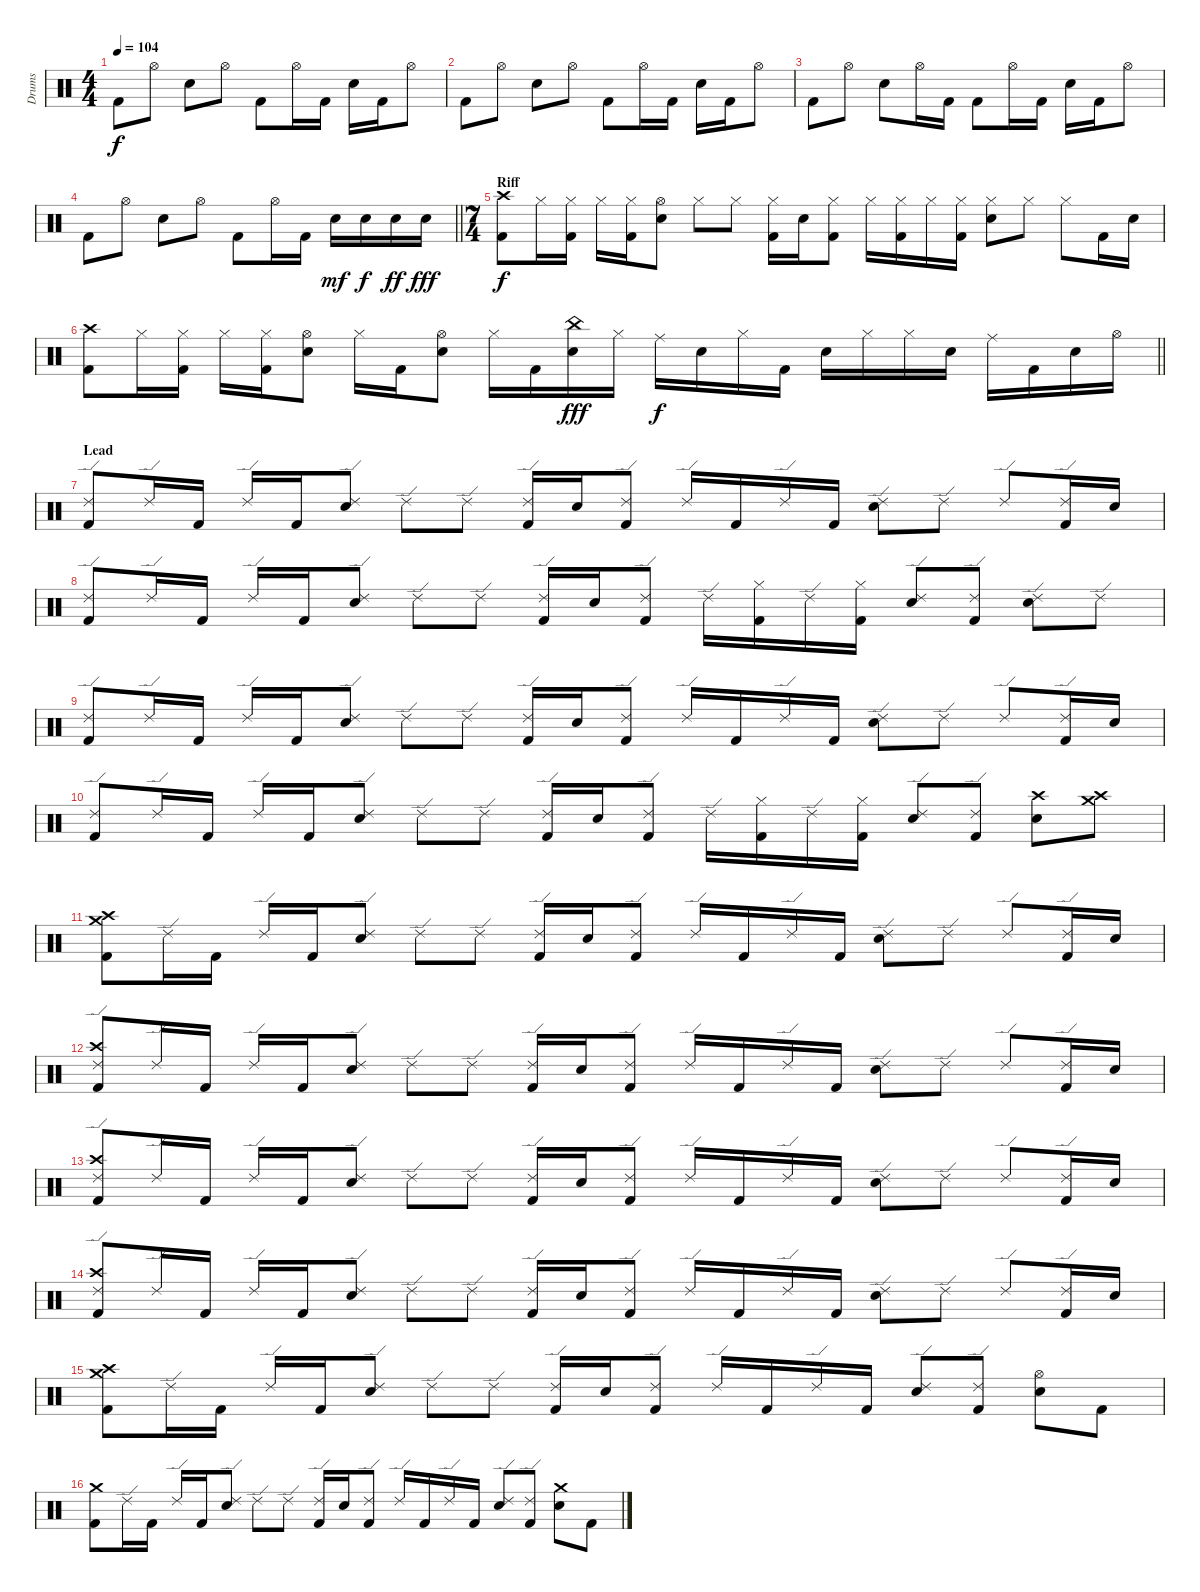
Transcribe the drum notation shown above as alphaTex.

\track ("Drums" "Drums") {instrument percussion}
\staff {score}
\articulation defaults
\ts (4 4)
\tempo 104
\clef neutral
\ks c "Kick (hit) 2".8{dy f} "Hi-Hat (open)".8 "Electric Snare (hit)".8 "Hi-Hat (open)".8 "Kick (hit) 2".8 "Hi-Hat (open)".16 "Kick (hit) 2".16 "Electric Snare (hit)".16 "Kick (hit) 2".16 "Hi-Hat (open)".8
|
"Kick (hit) 2".8 "Hi-Hat (open)".8 "Electric Snare (hit)".8 "Hi-Hat (open)".8 "Kick (hit) 2".8 "Hi-Hat (open)".16 "Kick (hit) 2".16 "Electric Snare (hit)".16 "Kick (hit) 2".16 "Hi-Hat (open)".8 |
"Kick (hit) 2".8 "Hi-Hat (open)".8 "Electric Snare (hit)".8 "Hi-Hat (open)".16 "Kick (hit) 2".16 "Kick (hit) 2".8 "Hi-Hat (open)".16 "Kick (hit) 2".16 "Electric Snare (hit)".16 "Kick (hit) 2".16 "Hi-Hat (open)".8 |
\barLineRight lightlight "Kick (hit) 2".8 "Hi-Hat (open)".8 "Electric Snare (hit)".8 "Hi-Hat (open)".8 "Kick (hit) 2".8 "Hi-Hat (open)".16 "Kick (hit) 2".16 "Electric Snare (hit)".16{dy mf} "Electric Snare (hit)".16{dy f} "Electric Snare (hit)".16{dy ff} "Electric Snare (hit)".16{dy fff}
|
\ts (7 4)
\section ("" "Riff")
("Crash high (hit)" "Kick (hit) 2").8{dy f} "Hi-Hat (closed)".16 ("Hi-Hat (closed)" "Kick (hit) 2").16 "Hi-Hat (closed)".16 ("Hi-Hat (closed)" "Kick (hit) 2").16 ("Hi-Hat (open)" "Electric Snare (hit)").8 "Hi-Hat (closed)".8 "Hi-Hat (closed)".8 ("Hi-Hat (closed)" "Kick (hit) 2").16 "Electric Snare (hit)".16 ("Hi-Hat (closed)" "Kick (hit) 2").8 "Hi-Hat (closed)".16 ("Hi-Hat (closed)" "Kick (hit) 2").16 "Hi-Hat (closed)".16 ("Hi-Hat (closed)" "Kick (hit) 2").16 ("Hi-Hat (closed)" "Electric Snare (hit)").8 "Hi-Hat (closed)".8 "Hi-Hat (closed)".8 "Kick (hit) 2".16 "Electric Snare (hit)".16 |
\barLineRight lightlight
("Crash high (hit)" "Kick (hit) 2").8 "Hi-Hat (closed)".16 ("Hi-Hat (closed)" "Kick (hit) 2").16 "Hi-Hat (closed)".16 ("Hi-Hat (closed)" "Kick (hit) 2").16 ("Hi-Hat (open)" "Electric Snare (hit)").8 "Hi-Hat (closed)".16 "Kick (hit) 2".16 ("Hi-Hat (open)" "Electric Snare (hit)").8 "Hi-Hat (closed)".16 "Kick (hit) 2".16 ("China (hit)" "Electric Snare (hit)").16{dy fff} "Hi-Hat (closed)".16 "Ride (middle)".16{dy f} "Electric Snare (hit)".16 "Hi-Hat (closed)".16 "Kick (hit) 2".16 "Electric Snare (hit)".16 "Hi-Hat (closed)".16 "Hi-Hat (closed)".16 "Electric Snare (hit)".16 "Ride (middle)".16 "Kick (hit) 2".16 "Electric Snare (hit)".16 "Hi-Hat (open)".16 |
\section ("" "Lead")
("Ride (edge) 2" "Kick (hit) 2").8 "Ride (edge) 2".16 "Kick (hit) 2".16 "Ride (edge) 2".16 "Kick (hit) 2".16 ("Ride (edge) 2" "Electric Snare (hit)").8 "Ride (edge) 2".8 "Ride (edge) 2".8 ("Ride (edge) 2" "Kick (hit) 2").16 "Electric Snare (hit)".16 ("Ride (edge) 2" "Kick (hit) 2").8 "Ride (edge) 2".16 "Kick (hit) 2".16 "Ride (edge) 2".16 "Kick (hit) 2".16 ("Ride (edge) 2" "Electric Snare (hit)").8 "Ride (edge) 2".8 "Ride (edge) 2".8 ("Ride (edge) 2" "Kick (hit) 2").16 "Electric Snare (hit)".16 |
("Ride (edge) 2" "Kick (hit) 2").8 "Ride (edge) 2".16 "Kick (hit) 2".16 "Ride (edge) 2".16 "Kick (hit) 2".16 ("Ride (edge) 2" "Electric Snare (hit)").8 "Ride (edge) 2".8 "Ride (edge) 2".8 ("Ride (edge) 2" "Kick (hit) 2").16 "Electric Snare (hit)".16 ("Ride (edge) 2" "Kick (hit) 2").8 "Ride (edge) 2".16 ("Hi-Hat (closed)" "Kick (hit) 2").16 "Ride (edge) 2".16 ("Hi-Hat (closed)" "Kick (hit) 2").16 ("Ride (edge) 2" "Electric Snare (hit)").8 ("Ride (edge) 2" "Kick (hit) 2").8 ("Ride (edge) 2" "Electric Snare (hit)").8 "Ride (edge) 2".8 |
("Ride (edge) 2" "Kick (hit) 2").8 "Ride (edge) 2".16 "Kick (hit) 2".16 "Ride (edge) 2".16 "Kick (hit) 2".16 ("Ride (edge) 2" "Electric Snare (hit)").8 "Ride (edge) 2".8 "Ride (edge) 2".8 ("Ride (edge) 2" "Kick (hit) 2").16 "Electric Snare (hit)".16 ("Ride (edge) 2" "Kick (hit) 2").8 "Ride (edge) 2".16 "Kick (hit) 2".16 "Ride (edge) 2".16 "Kick (hit) 2".16 ("Ride (edge) 2" "Electric Snare (hit)").8 "Ride (edge) 2".8 "Ride (edge) 2".8 ("Ride (edge) 2" "Kick (hit) 2").16 "Electric Snare (hit)".16 |
("Ride (edge) 2" "Kick (hit) 2").8 "Ride (edge) 2".16 "Kick (hit) 2".16 "Ride (edge) 2".16 "Kick (hit) 2".16 ("Ride (edge) 2" "Electric Snare (hit)").8 "Ride (edge) 2".8 "Ride (edge) 2".8 ("Ride (edge) 2" "Kick (hit) 2").16 "Electric Snare (hit)".16 ("Ride (edge) 2" "Kick (hit) 2").8 "Ride (edge) 2".16 ("Hi-Hat (closed)" "Kick (hit) 2").16 "Ride (edge) 2".16 ("Hi-Hat (closed)" "Kick (hit) 2").16 ("Ride (edge) 2" "Electric Snare (hit)").8 ("Ride (edge) 2" "Kick (hit) 2").8 ("Crash high (hit)" "Electric Snare (hit)").8 ("Crash medium (hit)" "Crash high (hit)").8 |
("Crash medium (hit)" "Crash high (hit)" "Kick (hit) 2").8 "Ride (edge) 2".16 "Kick (hit) 2".16 "Ride (edge) 2".16 "Kick (hit) 2".16 ("Ride (edge) 2" "Electric Snare (hit)").8 "Ride (edge) 2".8 "Ride (edge) 2".8 ("Ride (edge) 2" "Kick (hit) 2").16 "Electric Snare (hit)".16 ("Ride (edge) 2" "Kick (hit) 2").8 "Ride (edge) 2".16 "Kick (hit) 2".16 "Ride (edge) 2".16 "Kick (hit) 2".16 ("Ride (edge) 2" "Electric Snare (hit)").8 "Ride (edge) 2".8 "Ride (edge) 2".8 ("Ride (edge) 2" "Kick (hit) 2").16 "Electric Snare (hit)".16 |
("Ride (edge) 2" "Crash high (hit)" "Kick (hit) 2").8 "Ride (edge) 2".16 "Kick (hit) 2".16 "Ride (edge) 2".16 "Kick (hit) 2".16 ("Ride (edge) 2" "Electric Snare (hit)").8 "Ride (edge) 2".8 "Ride (edge) 2".8 ("Ride (edge) 2" "Kick (hit) 2").16 "Electric Snare (hit)".16 ("Ride (edge) 2" "Kick (hit) 2").8 "Ride (edge) 2".16 "Kick (hit) 2".16 "Ride (edge) 2".16 "Kick (hit) 2".16 ("Ride (edge) 2" "Electric Snare (hit)").8 "Ride (edge) 2".8 "Ride (edge) 2".8 ("Ride (edge) 2" "Kick (hit) 2").16 "Electric Snare (hit)".16 |
("Ride (edge) 2" "Crash high (hit)" "Kick (hit) 2").8 "Ride (edge) 2".16 "Kick (hit) 2".16 "Ride (edge) 2".16 "Kick (hit) 2".16 ("Ride (edge) 2" "Electric Snare (hit)").8 "Ride (edge) 2".8 "Ride (edge) 2".8 ("Ride (edge) 2" "Kick (hit) 2").16 "Electric Snare (hit)".16 ("Ride (edge) 2" "Kick (hit) 2").8 "Ride (edge) 2".16 "Kick (hit) 2".16 "Ride (edge) 2".16 "Kick (hit) 2".16 ("Ride (edge) 2" "Electric Snare (hit)").8 "Ride (edge) 2".8 "Ride (edge) 2".8 ("Ride (edge) 2" "Kick (hit) 2").16 "Electric Snare (hit)".16 |
("Ride (edge) 2" "Crash high (hit)" "Kick (hit) 2").8 "Ride (edge) 2".16 "Kick (hit) 2".16 "Ride (edge) 2".16 "Kick (hit) 2".16 ("Ride (edge) 2" "Electric Snare (hit)").8 "Ride (edge) 2".8 "Ride (edge) 2".8 ("Ride (edge) 2" "Kick (hit) 2").16 "Electric Snare (hit)".16 ("Ride (edge) 2" "Kick (hit) 2").8 "Ride (edge) 2".16 "Kick (hit) 2".16 "Ride (edge) 2".16 "Kick (hit) 2".16 ("Ride (edge) 2" "Electric Snare (hit)").8 "Ride (edge) 2".8 "Ride (edge) 2".8 ("Ride (edge) 2" "Kick (hit) 2").16 "Electric Snare (hit)".16 |
("Crash high (hit)" "Crash medium (hit)" "Kick (hit) 2").8 "Ride (edge) 2".16 "Kick (hit) 2".16 "Ride (edge) 2".16 "Kick (hit) 2".16 ("Ride (edge) 2" "Electric Snare (hit)").8 "Ride (edge) 2".8 "Ride (edge) 2".8 ("Ride (edge) 2" "Kick (hit) 2").16 "Electric Snare (hit)".16 ("Ride (edge) 2" "Kick (hit) 2").8 "Ride (edge) 2".16 "Kick (hit) 2".16 "Ride (edge) 2".16 "Kick (hit) 2".16 ("Ride (edge) 2" "Electric Snare (hit)").8 ("Ride (edge) 2" "Kick (hit) 2").8 ("Hi-Hat (open)" "Electric Snare (hit)").8 "Kick (hit) 2".8 |
("Crash medium (hit)" "Kick (hit) 2").8 "Ride (edge) 2".16 "Kick (hit) 2".16 "Ride (edge) 2".16 "Kick (hit) 2".16 ("Ride (edge) 2" "Electric Snare (hit)").8 "Ride (edge) 2".8 "Ride (edge) 2".8 ("Ride (edge) 2" "Kick (hit) 2").16 "Electric Snare (hit)".16 ("Ride (edge) 2" "Kick (hit) 2").8 "Ride (edge) 2".16 "Kick (hit) 2".16 "Ride (edge) 2".16 "Kick (hit) 2".16 ("Ride (edge) 2" "Electric Snare (hit)").8 ("Ride (edge) 2" "Kick (hit) 2").8 ("Crash medium (hit)" "Electric Snare (hit)").8 "Kick (hit) 2".8
